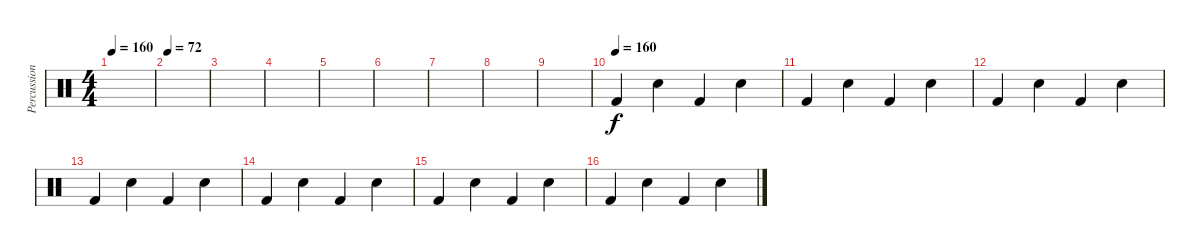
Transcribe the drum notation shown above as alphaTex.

\track ("Percussions" "Percussion") {instrument percussion}
\staff {score}
\articulation defaults
\ts (4 4)
\tempo 160
\clef neutral
\ks c
|
\tempo 72
|
|
|
|
|
|
|
|
\tempo (160)
"Kick (hit) 2".4 "Electric Snare (hit)".4 "Kick (hit) 2".4 "Electric Snare (hit)".4 |
"Kick (hit) 2".4 "Electric Snare (hit)".4 "Kick (hit) 2".4 "Electric Snare (hit)".4 |
"Kick (hit) 2".4 "Electric Snare (hit)".4 "Kick (hit) 2".4 "Electric Snare (hit)".4 |
"Kick (hit) 2".4 "Electric Snare (hit)".4 "Kick (hit) 2".4 "Electric Snare (hit)".4 |
"Kick (hit) 2".4 "Electric Snare (hit)".4 "Kick (hit) 2".4 "Electric Snare (hit)".4 |
"Kick (hit) 2".4 "Electric Snare (hit)".4 "Kick (hit) 2".4 "Electric Snare (hit)".4 |
"Kick (hit) 2".4 "Electric Snare (hit)".4 "Kick (hit) 2".4 "Electric Snare (hit)".4
